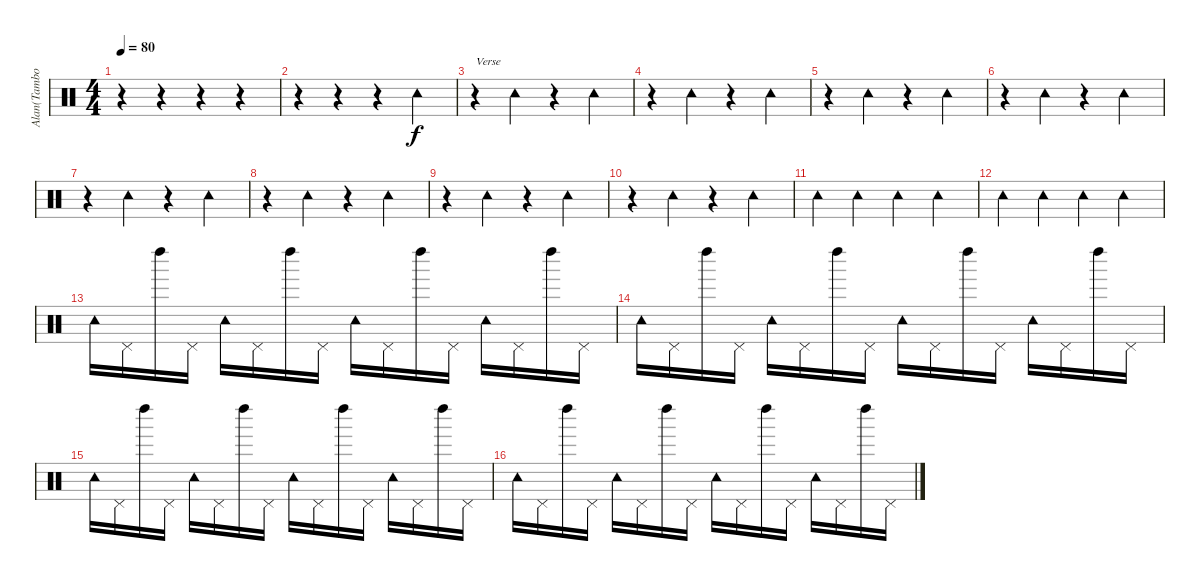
\track ("Alan(Tambourine)" "Alan(Tambo") {instrument percussion}
\staff {score}
\articulation defaults
\ts (4 4)
\tempo 80
\clef neutral
\ks c
r.4{dy f} r.4 r.4 r.4 |
r.4 r.4 r.4 "Tambourine (hit)".4 |
r.4{txt "Verse"} "Tambourine (hit)".4 r.4 "Tambourine (hit)".4 |
r.4 "Tambourine (hit)".4 r.4 "Tambourine (hit)".4 |
r.4 "Tambourine (hit)".4 r.4 "Tambourine (hit)".4 |
r.4 "Tambourine (hit)".4 r.4 "Tambourine (hit)".4 |
r.4 "Tambourine (hit)".4 r.4 "Tambourine (hit)".4 |
r.4 "Tambourine (hit)".4 r.4 "Tambourine (hit)".4 |
r.4 "Tambourine (hit)".4 r.4 "Tambourine (hit)".4 |
r.4 "Tambourine (hit)".4 r.4 "Tambourine (hit)".4 |
"Tambourine (hit)".4 "Tambourine (hit)".4 "Tambourine (hit)".4 "Tambourine (hit)".4 |
"Tambourine (hit)".4 "Tambourine (hit)".4 "Tambourine (hit)".4 "Tambourine (hit)".4 |
"Tambourine (hit)".16 "Pedal Hi-Hat (hit)".16 "Left Maraca (hit)".16 "Pedal Hi-Hat (hit)".16 "Tambourine (hit)".16 "Pedal Hi-Hat (hit)".16 "Left Maraca (hit)".16 "Pedal Hi-Hat (hit)".16 "Tambourine (hit)".16 "Pedal Hi-Hat (hit)".16 "Left Maraca (hit)".16 "Pedal Hi-Hat (hit)".16 "Tambourine (hit)".16 "Pedal Hi-Hat (hit)".16 "Left Maraca (hit)".16 "Pedal Hi-Hat (hit)".16 |
"Tambourine (hit)".16 "Pedal Hi-Hat (hit)".16 "Left Maraca (hit)".16 "Pedal Hi-Hat (hit)".16 "Tambourine (hit)".16 "Pedal Hi-Hat (hit)".16 "Left Maraca (hit)".16 "Pedal Hi-Hat (hit)".16 "Tambourine (hit)".16 "Pedal Hi-Hat (hit)".16 "Left Maraca (hit)".16 "Pedal Hi-Hat (hit)".16 "Tambourine (hit)".16 "Pedal Hi-Hat (hit)".16 "Left Maraca (hit)".16 "Pedal Hi-Hat (hit)".16 |
"Tambourine (hit)".16 "Pedal Hi-Hat (hit)".16 "Left Maraca (hit)".16 "Pedal Hi-Hat (hit)".16 "Tambourine (hit)".16 "Pedal Hi-Hat (hit)".16 "Left Maraca (hit)".16 "Pedal Hi-Hat (hit)".16 "Tambourine (hit)".16 "Pedal Hi-Hat (hit)".16 "Left Maraca (hit)".16 "Pedal Hi-Hat (hit)".16 "Tambourine (hit)".16 "Pedal Hi-Hat (hit)".16 "Left Maraca (hit)".16 "Pedal Hi-Hat (hit)".16 |
"Tambourine (hit)".16 "Pedal Hi-Hat (hit)".16 "Left Maraca (hit)".16 "Pedal Hi-Hat (hit)".16 "Tambourine (hit)".16 "Pedal Hi-Hat (hit)".16 "Left Maraca (hit)".16 "Pedal Hi-Hat (hit)".16 "Tambourine (hit)".16 "Pedal Hi-Hat (hit)".16 "Left Maraca (hit)".16 "Pedal Hi-Hat (hit)".16 "Tambourine (hit)".16 "Pedal Hi-Hat (hit)".16 "Left Maraca (hit)".16 "Pedal Hi-Hat (hit)".16
